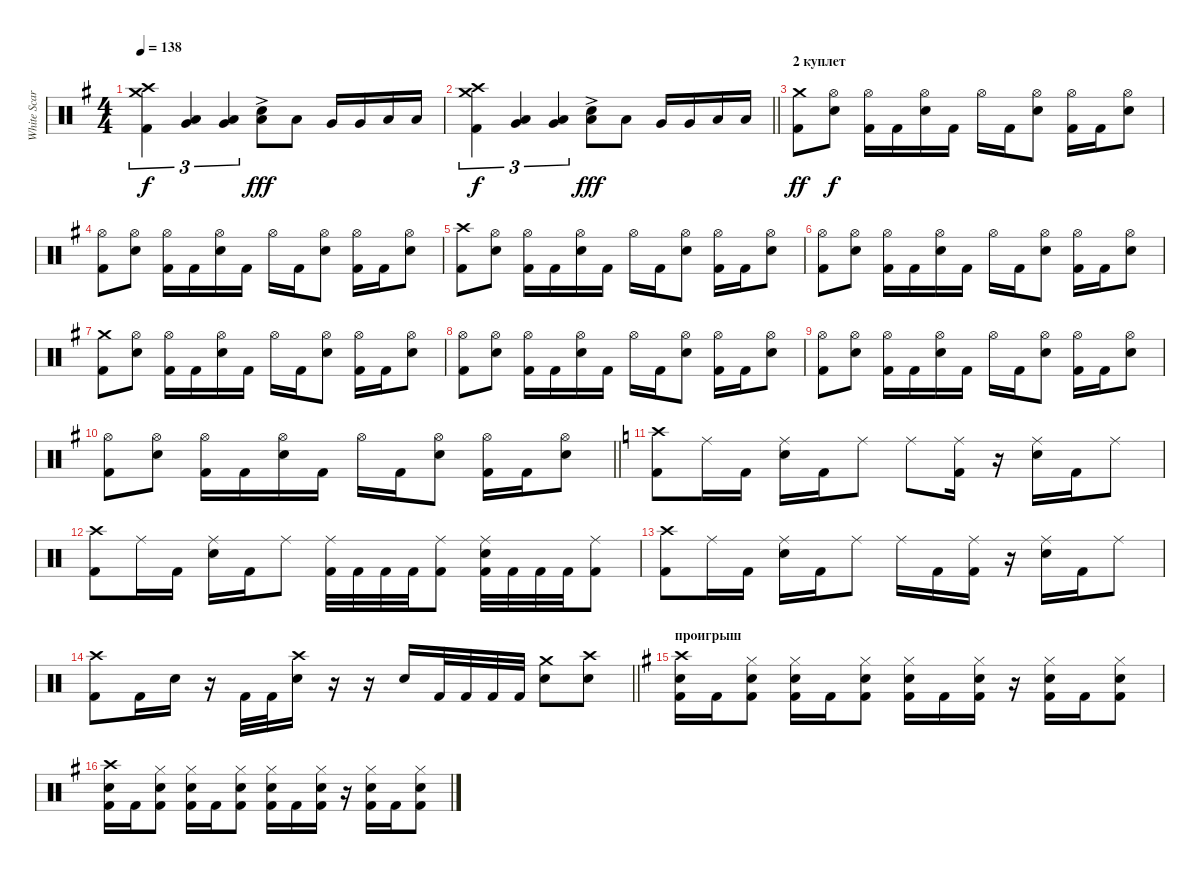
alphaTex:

\track ("White Scar" "White Scar") {instrument percussion}
\staff {score}
\articulation defaults
\ts (4 4)
\tempo 138
\clef neutral
\ks eminor
("Crash high (hit)" "Crash medium (hit)" "Kick (hit) 2").4{tu (3 2) dy f} ("Low Tom (hit)" "Very Low Tom (hit)").4{tu (3 2)} ("Very Low Tom (hit)" "Low Floor Tom (hit)").4{tu (3 2)} ("Snare (hit) 2"{ac} "Low Floor Tom (hit)").8{dy fff} "Low Tom (hit)".8 "Very Low Tom (hit)".16 "Very Low Tom (hit)".16 "Low Floor Tom (hit)".16 "Low Floor Tom (hit)".16 |
\barLineRight lightlight
("Crash high (hit)" "Crash medium (hit)" "Kick (hit) 2").4{tu (3 2) dy f} ("Low Tom (hit)" "Very Low Tom (hit)").4{tu (3 2)} ("Very Low Tom (hit)" "Low Floor Tom (hit)").4{tu (3 2)} ("Snare (hit) 2"{ac} "Low Floor Tom (hit)").8{dy fff} "Low Tom (hit)".8 "Very Low Tom (hit)".16 "Very Low Tom (hit)".16 "Low Floor Tom (hit)".16 "Low Floor Tom (hit)".16 |
\section ("" "2 куплет")
("Crash medium (hit)" "Kick (hit) 2").8{dy ff} ("Hi-Hat (open)" "Snare (hit) 2").8{dy f} ("Hi-Hat (open)" "Kick (hit) 2").16 "Kick (hit) 2".16 ("Hi-Hat (open)" "Snare (hit) 2").16 "Kick (hit) 2".16 "Hi-Hat (open)".16 "Kick (hit) 2".16 ("Hi-Hat (open)" "Snare (hit) 2").8 ("Hi-Hat (open)" "Kick (hit) 2").16 "Kick (hit) 2".16 ("Hi-Hat (open)" "Snare (hit) 2").8 |
("Hi-Hat (open)" "Kick (hit) 2").8 ("Hi-Hat (open)" "Snare (hit) 2").8 ("Hi-Hat (open)" "Kick (hit) 2").16 "Kick (hit) 2".16 ("Hi-Hat (open)" "Snare (hit) 2").16 "Kick (hit) 2".16 "Hi-Hat (open)".16 "Kick (hit) 2".16 ("Hi-Hat (open)" "Snare (hit) 2").8 ("Hi-Hat (open)" "Kick (hit) 2").16 "Kick (hit) 2".16 ("Hi-Hat (open)" "Snare (hit) 2").8 |
("Crash high (hit)" "Kick (hit) 2").8 ("Hi-Hat (open)" "Snare (hit) 2").8 ("Hi-Hat (open)" "Kick (hit) 2").16 "Kick (hit) 2".16 ("Hi-Hat (open)" "Snare (hit) 2").16 "Kick (hit) 2".16 "Hi-Hat (open)".16 "Kick (hit) 2".16 ("Hi-Hat (open)" "Snare (hit) 2").8 ("Hi-Hat (open)" "Kick (hit) 2").16 "Kick (hit) 2".16 ("Hi-Hat (open)" "Snare (hit) 2").8 |
("Hi-Hat (open)" "Kick (hit) 2").8 ("Hi-Hat (open)" "Snare (hit) 2").8 ("Hi-Hat (open)" "Kick (hit) 2").16 "Kick (hit) 2".16 ("Hi-Hat (open)" "Snare (hit) 2").16 "Kick (hit) 2".16 "Hi-Hat (open)".16 "Kick (hit) 2".16 ("Hi-Hat (open)" "Snare (hit) 2").8 ("Hi-Hat (open)" "Kick (hit) 2").16 "Kick (hit) 2".16 ("Hi-Hat (open)" "Snare (hit) 2").8 |
("Crash medium (hit)" "Kick (hit) 2").8 ("Hi-Hat (open)" "Snare (hit) 2").8 ("Hi-Hat (open)" "Kick (hit) 2").16 "Kick (hit) 2".16 ("Hi-Hat (open)" "Snare (hit) 2").16 "Kick (hit) 2".16 "Hi-Hat (open)".16 "Kick (hit) 2".16 ("Hi-Hat (open)" "Snare (hit) 2").8 ("Hi-Hat (open)" "Kick (hit) 2").16 "Kick (hit) 2".16 ("Hi-Hat (open)" "Snare (hit) 2").8 |
("Hi-Hat (open)" "Kick (hit) 2").8 ("Hi-Hat (open)" "Snare (hit) 2").8 ("Hi-Hat (open)" "Kick (hit) 2").16 "Kick (hit) 2".16 ("Hi-Hat (open)" "Snare (hit) 2").16 "Kick (hit) 2".16 "Hi-Hat (open)".16 "Kick (hit) 2".16 ("Hi-Hat (open)" "Snare (hit) 2").8 ("Hi-Hat (open)" "Kick (hit) 2").16 "Kick (hit) 2".16 ("Hi-Hat (open)" "Snare (hit) 2").8 |
("Hi-Hat (open)" "Kick (hit) 2").8 ("Hi-Hat (open)" "Snare (hit) 2").8 ("Hi-Hat (open)" "Kick (hit) 2").16 "Kick (hit) 2".16 ("Hi-Hat (open)" "Snare (hit) 2").16 "Kick (hit) 2".16 "Hi-Hat (open)".16 "Kick (hit) 2".16 ("Hi-Hat (open)" "Snare (hit) 2").8 ("Hi-Hat (open)" "Kick (hit) 2").16 "Kick (hit) 2".16 ("Hi-Hat (open)" "Snare (hit) 2").8 |
\barLineRight lightlight
("Hi-Hat (open)" "Kick (hit) 2").8 ("Hi-Hat (open)" "Snare (hit) 2").8 ("Hi-Hat (open)" "Kick (hit) 2").16 "Kick (hit) 2".16 ("Hi-Hat (open)" "Snare (hit) 2").16 "Kick (hit) 2".16 "Hi-Hat (open)".16 "Kick (hit) 2".16 ("Hi-Hat (open)" "Snare (hit) 2").8 ("Hi-Hat (open)" "Kick (hit) 2").16 "Kick (hit) 2".16 ("Hi-Hat (open)" "Snare (hit) 2").8 |
\ks c
("Crash high (hit)" "Kick (hit) 2").8 "Ride (middle)".16 "Kick (hit) 2".16 ("Ride (middle)" "Snare (hit) 2").16 "Kick (hit) 2".16 "Ride (middle)".8 "Ride (middle)".8 ("Ride (middle)" "Kick (hit) 2").16 r.16 ("Ride (middle)" "Snare (hit) 2").16 "Kick (hit) 2".16 "Ride (middle)".8 |
("Crash high (hit)" "Kick (hit) 2").8 "Ride (middle)".16 "Kick (hit) 2".16 ("Ride (middle)" "Snare (hit) 2").16 "Kick (hit) 2".16 "Ride (middle)".8 ("Ride (middle)" "Kick (hit) 2").32 "Kick (hit) 2".32 "Kick (hit) 2".32 "Kick (hit) 2".32 ("Ride (middle)" "Kick (hit) 2").8 ("Ride (middle)" "Snare (hit) 2" "Kick (hit) 2").32 "Kick (hit) 2".32 "Kick (hit) 2".32 "Kick (hit) 2".32 ("Ride (middle)" "Kick (hit) 2").8 |
("Crash high (hit)" "Kick (hit) 2").8 "Ride (middle)".16 "Kick (hit) 2".16 ("Ride (middle)" "Snare (hit) 2").16 "Kick (hit) 2".16 "Ride (middle)".8 "Ride (middle)".16 "Kick (hit) 2".16 ("Ride (middle)" "Kick (hit) 2").16 r.16 ("Ride (middle)" "Snare (hit) 2").16 "Kick (hit) 2".16 "Ride (middle)".8 |
\barLineRight lightlight
("Crash high (hit)" "Kick (hit) 2").8 "Kick (hit) 2".16 "Snare (hit) 2".16 r.16 "Kick (hit) 2".32 "Kick (hit) 2".32 ("Crash high (hit)" "Snare (hit) 2").16 r.16 r.16 "Snare (hit) 2".16 "Kick (hit) 2".32 "Kick (hit) 2".32 "Kick (hit) 2".32 "Kick (hit) 2".32 ("Crash medium (hit)" "Snare (hit) 2").8 ("Crash high (hit)" "Snare (hit) 2").8 |
\section ("" "проигрыш")
\ks eminor
("Crash high (hit)" "Snare (hit) 2" "Kick (hit) 2").16 "Kick (hit) 2".16 ("Snare (hit) 2" "Hi-Hat (closed)" "Kick (hit) 2").8 ("Snare (hit) 2" "Hi-Hat (closed)" "Kick (hit) 2").16 "Kick (hit) 2".16 ("Snare (hit) 2" "Hi-Hat (closed)" "Kick (hit) 2").8 ("Snare (hit) 2" "Hi-Hat (closed)" "Kick (hit) 2").16 "Kick (hit) 2".16 ("Snare (hit) 2" "Hi-Hat (closed)" "Kick (hit) 2").16 r.16 ("Snare (hit) 2" "Hi-Hat (closed)" "Kick (hit) 2").16 "Kick (hit) 2".16 ("Snare (hit) 2" "Hi-Hat (closed)" "Kick (hit) 2").8 |
("Crash high (hit)" "Snare (hit) 2" "Kick (hit) 2").16 "Kick (hit) 2".16 ("Snare (hit) 2" "Hi-Hat (closed)" "Kick (hit) 2").8 ("Snare (hit) 2" "Hi-Hat (closed)" "Kick (hit) 2").16 "Kick (hit) 2".16 ("Snare (hit) 2" "Hi-Hat (closed)" "Kick (hit) 2").8 ("Snare (hit) 2" "Hi-Hat (closed)" "Kick (hit) 2").16 "Kick (hit) 2".16 ("Snare (hit) 2" "Hi-Hat (closed)" "Kick (hit) 2").16 r.16 ("Snare (hit) 2" "Hi-Hat (closed)" "Kick (hit) 2").16 "Kick (hit) 2".16 ("Snare (hit) 2" "Hi-Hat (closed)" "Kick (hit) 2").8
